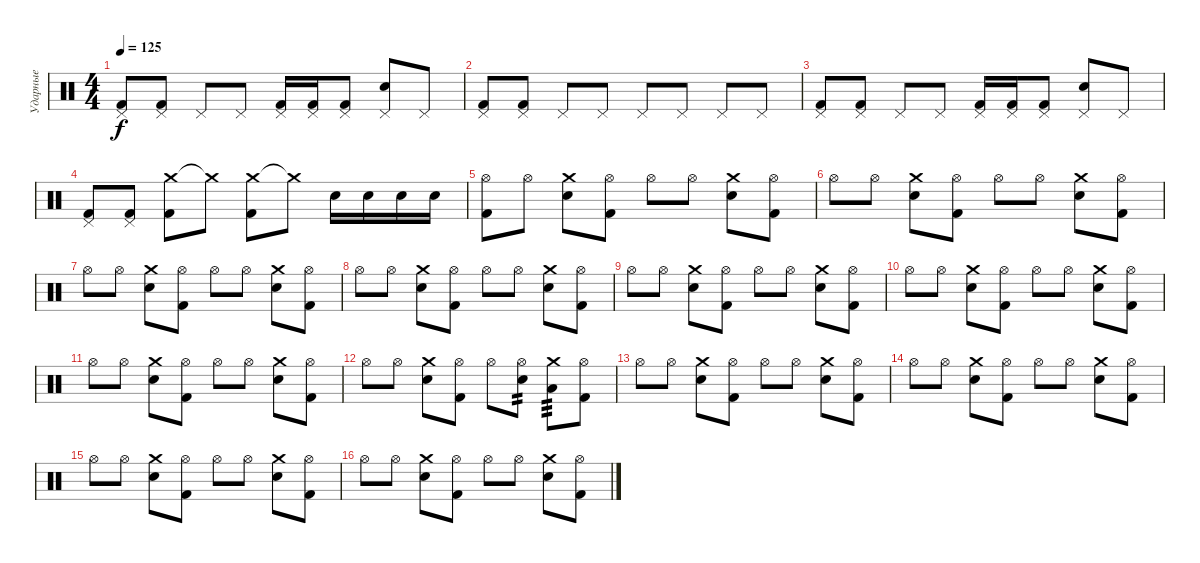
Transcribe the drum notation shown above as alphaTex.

\track ("Ударные" "Ударные") {instrument percussion}
\staff {score}
\articulation defaults
\ts (4 4)
\tempo 125
\clef neutral
\ks c
("Pedal Hi-Hat (hit)" "Kick (hit) 2").8{dy f} ("Pedal Hi-Hat (hit)" "Kick (hit) 2").8 "Pedal Hi-Hat (hit)".8 "Pedal Hi-Hat (hit)".8 ("Pedal Hi-Hat (hit)" "Kick (hit) 2").16 ("Pedal Hi-Hat (hit)" "Kick (hit) 2").16 ("Pedal Hi-Hat (hit)" "Kick (hit) 2").8 ("Pedal Hi-Hat (hit)" "Electric Snare (hit)").8 "Pedal Hi-Hat (hit)".8 |
("Pedal Hi-Hat (hit)" "Kick (hit) 2").8 ("Pedal Hi-Hat (hit)" "Kick (hit) 2").8 "Pedal Hi-Hat (hit)".8 "Pedal Hi-Hat (hit)".8 "Pedal Hi-Hat (hit)".8 "Pedal Hi-Hat (hit)".8 "Pedal Hi-Hat (hit)".8 "Pedal Hi-Hat (hit)".8 |
("Pedal Hi-Hat (hit)" "Kick (hit) 2").8 ("Pedal Hi-Hat (hit)" "Kick (hit) 2").8 "Pedal Hi-Hat (hit)".8 "Pedal Hi-Hat (hit)".8 ("Pedal Hi-Hat (hit)" "Kick (hit) 2").16 ("Pedal Hi-Hat (hit)" "Kick (hit) 2").16 ("Pedal Hi-Hat (hit)" "Kick (hit) 2").8 ("Pedal Hi-Hat (hit)" "Electric Snare (hit)").8 "Pedal Hi-Hat (hit)".8 |
("Pedal Hi-Hat (hit)" "Kick (hit) 2").8 ("Pedal Hi-Hat (hit)" "Kick (hit) 2").8 ("Crash medium (hit)" "Kick (hit) 2").8 "Crash medium (hit)"{t}.8 ("Crash medium (hit)" "Kick (hit) 2").8 "Crash medium (hit)"{t}.8 "Electric Snare (hit)".16 "Electric Snare (hit)".16 "Electric Snare (hit)".16 "Electric Snare (hit)".16 |
("Hi-Hat (open)" "Kick (hit) 2").8 "Hi-Hat (open)".8 ("Crash medium (hit)" "Electric Snare (hit)").8 ("Hi-Hat (open)" "Kick (hit) 2").8 "Hi-Hat (open)".8 "Hi-Hat (open)".8 ("Crash medium (hit)" "Electric Snare (hit)").8 ("Hi-Hat (open)" "Kick (hit) 2").8 |
"Hi-Hat (open)".8 "Hi-Hat (open)".8 ("Crash medium (hit)" "Electric Snare (hit)").8 ("Hi-Hat (open)" "Kick (hit) 2").8 "Hi-Hat (open)".8 "Hi-Hat (open)".8 ("Crash medium (hit)" "Electric Snare (hit)").8 ("Hi-Hat (open)" "Kick (hit) 2").8 |
"Hi-Hat (open)".8 "Hi-Hat (open)".8 ("Crash medium (hit)" "Electric Snare (hit)").8 ("Hi-Hat (open)" "Kick (hit) 2").8 "Hi-Hat (open)".8 "Hi-Hat (open)".8 ("Crash medium (hit)" "Electric Snare (hit)").8 ("Hi-Hat (open)" "Kick (hit) 2").8 |
"Hi-Hat (open)".8 "Hi-Hat (open)".8 ("Crash medium (hit)" "Electric Snare (hit)").8 ("Hi-Hat (open)" "Kick (hit) 2").8 "Hi-Hat (open)".8 "Hi-Hat (open)".8 ("Crash medium (hit)" "Electric Snare (hit)").8 ("Hi-Hat (open)" "Kick (hit) 2").8 |
"Hi-Hat (open)".8 "Hi-Hat (open)".8 ("Crash medium (hit)" "Electric Snare (hit)").8 ("Hi-Hat (open)" "Kick (hit) 2").8 "Hi-Hat (open)".8 "Hi-Hat (open)".8 ("Crash medium (hit)" "Electric Snare (hit)").8 ("Hi-Hat (open)" "Kick (hit) 2").8 |
"Hi-Hat (open)".8 "Hi-Hat (open)".8 ("Crash medium (hit)" "Electric Snare (hit)").8 ("Hi-Hat (open)" "Kick (hit) 2").8 "Hi-Hat (open)".8 "Hi-Hat (open)".8 ("Crash medium (hit)" "Electric Snare (hit)").8 ("Hi-Hat (open)" "Kick (hit) 2").8 |
"Hi-Hat (open)".8 "Hi-Hat (open)".8 ("Crash medium (hit)" "Electric Snare (hit)").8 ("Hi-Hat (open)" "Kick (hit) 2").8 "Hi-Hat (open)".8 "Hi-Hat (open)".8 ("Crash medium (hit)" "Electric Snare (hit)").8 ("Hi-Hat (open)" "Kick (hit) 2").8 |
"Hi-Hat (open)".8 "Hi-Hat (open)".8 ("Crash medium (hit)" "Electric Snare (hit)").8 ("Hi-Hat (open)" "Kick (hit) 2").8 "Hi-Hat (open)".8 ("Hi-Hat (open)" "Electric Snare (hit)").8{tp 2} ("Crash medium (hit)" "Low Tom (hit)").8{tp 3} ("Hi-Hat (open)" "Kick (hit) 2").8 |
"Hi-Hat (open)".8 "Hi-Hat (open)".8 ("Crash medium (hit)" "Electric Snare (hit)").8 ("Hi-Hat (open)" "Kick (hit) 2").8 "Hi-Hat (open)".8 "Hi-Hat (open)".8 ("Crash medium (hit)" "Electric Snare (hit)").8 ("Hi-Hat (open)" "Kick (hit) 2").8 |
"Hi-Hat (open)".8 "Hi-Hat (open)".8 ("Crash medium (hit)" "Electric Snare (hit)").8 ("Hi-Hat (open)" "Kick (hit) 2").8 "Hi-Hat (open)".8 "Hi-Hat (open)".8 ("Crash medium (hit)" "Electric Snare (hit)").8 ("Hi-Hat (open)" "Kick (hit) 2").8 |
"Hi-Hat (open)".8 "Hi-Hat (open)".8 ("Crash medium (hit)" "Electric Snare (hit)").8 ("Hi-Hat (open)" "Kick (hit) 2").8 "Hi-Hat (open)".8 "Hi-Hat (open)".8 ("Crash medium (hit)" "Electric Snare (hit)").8 ("Hi-Hat (open)" "Kick (hit) 2").8 |
"Hi-Hat (open)".8 "Hi-Hat (open)".8 ("Crash medium (hit)" "Electric Snare (hit)").8 ("Hi-Hat (open)" "Kick (hit) 2").8 "Hi-Hat (open)".8 "Hi-Hat (open)".8 ("Crash medium (hit)" "Electric Snare (hit)").8 ("Hi-Hat (open)" "Kick (hit) 2").8
